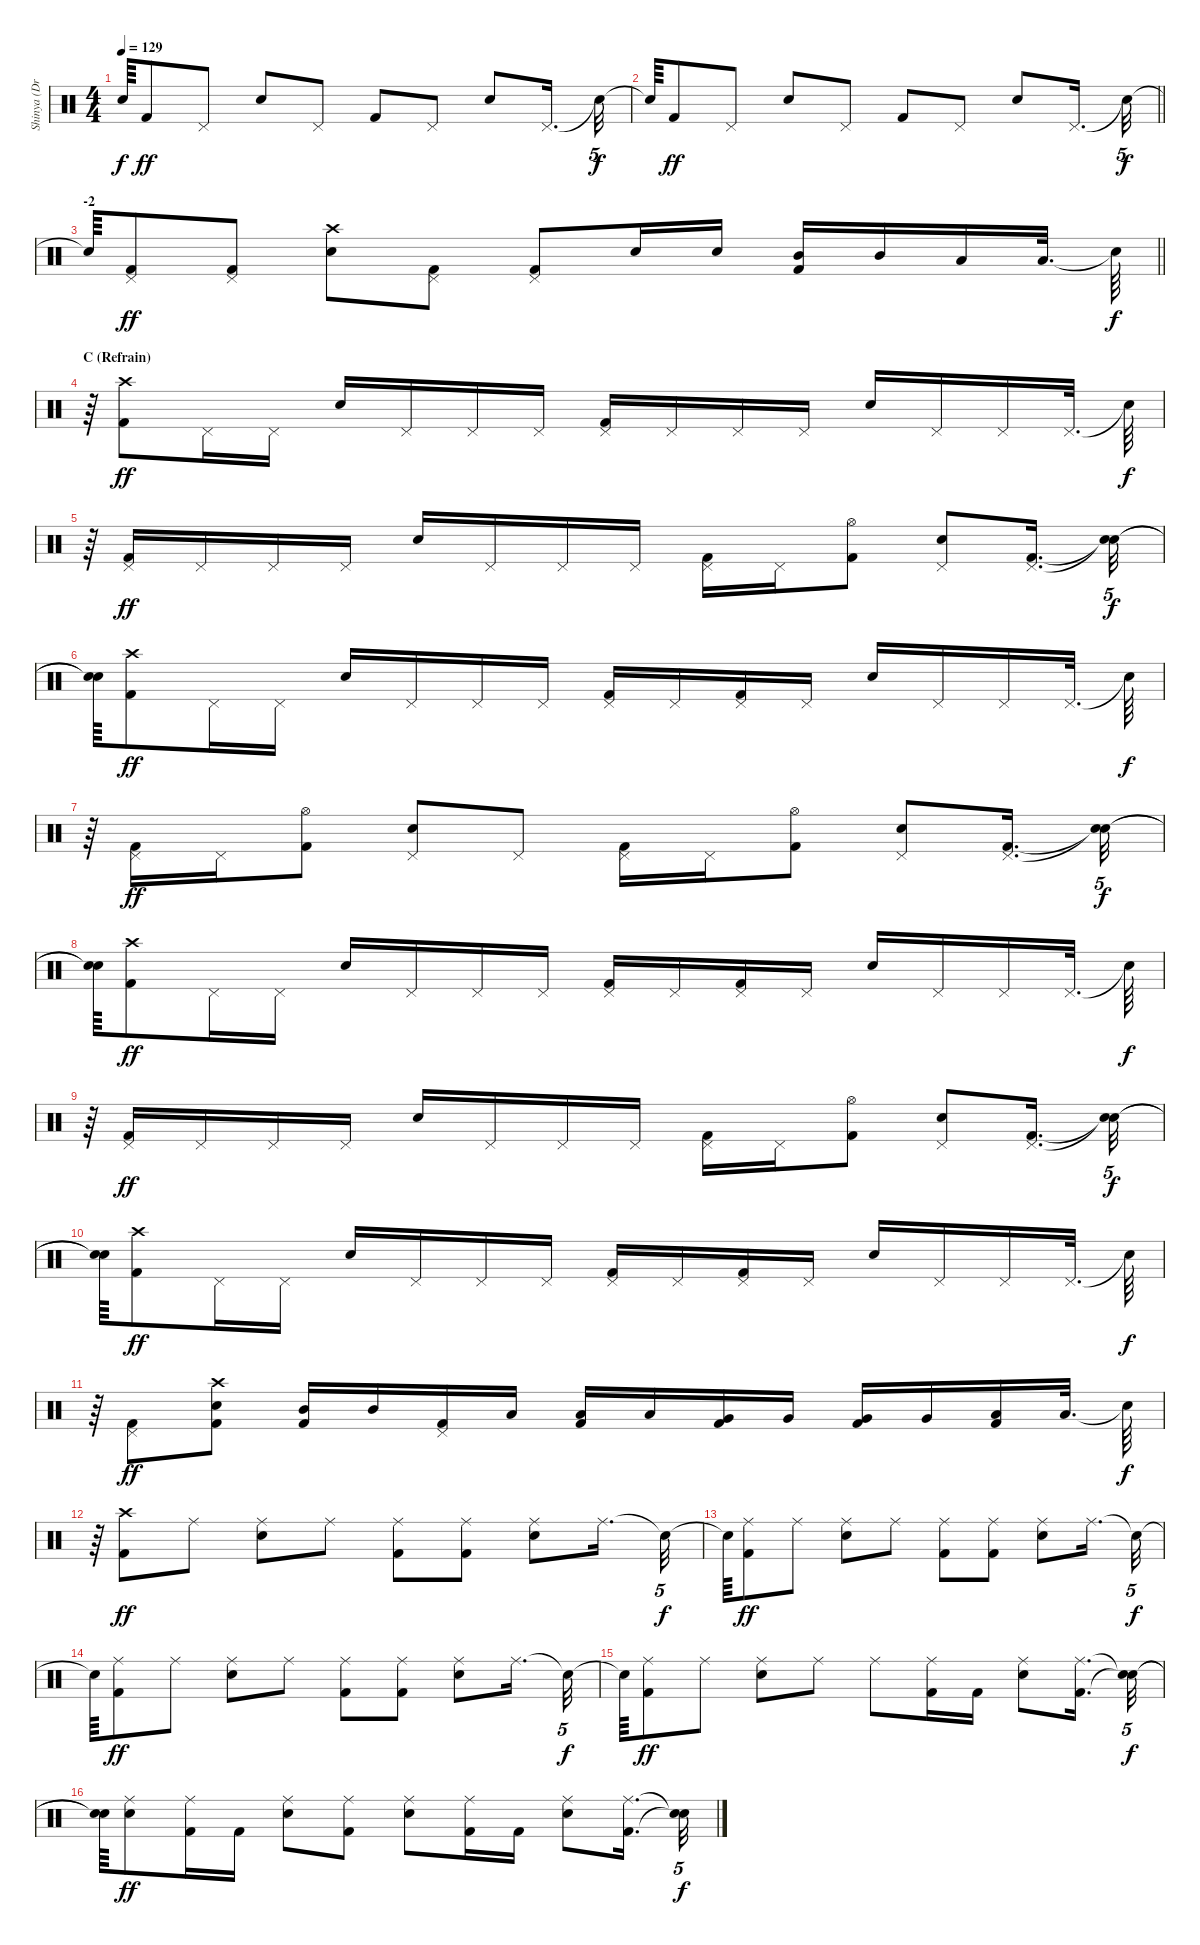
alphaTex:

\track ("Shinya (Drums)" "Shinya (Dr") {instrument percussion}
\staff {score}
\articulation defaults
\ts (4 4)
\tempo 129
\clef neutral
\ks c "Snare (hit)"{t}.64{dy f} "Kick (hit) 2".8{dy ff} "Pedal Hi-Hat (hit)".8 "Electric Snare (hit)".8 "Pedal Hi-Hat (hit)".8 "Kick (hit) 2".8 "Pedal Hi-Hat (hit)".8 "Electric Snare (hit)".8 "Pedal Hi-Hat (hit)".16{d} "Snare (hit)"{t}.32{tu (5 4) dy f}
|
\barLineRight lightlight "Snare (hit)"{t}.64 "Kick (hit) 2".8{dy ff} "Pedal Hi-Hat (hit)".8 "Electric Snare (hit)".8 "Pedal Hi-Hat (hit)".8 "Kick (hit) 2".8 "Pedal Hi-Hat (hit)".8 "Electric Snare (hit)".8 "Pedal Hi-Hat (hit)".16{d} "Snare (hit)"{t}.32{tu (5 4) dy f}
|
\section ("" "-2")
\barLineRight lightlight "Snare (hit)"{t}.64
("Pedal Hi-Hat (hit)" "Kick (hit) 2").8{dy ff} ("Pedal Hi-Hat (hit)" "Kick (hit) 2").8 ("Electric Snare (hit)" "Crash high (hit)").8 ("Pedal Hi-Hat (hit)" "Kick (hit) 2").8 ("Pedal Hi-Hat (hit)" "Kick (hit) 2").8 "Electric Snare (hit)".16 "Electric Snare (hit)".16 ("Mid Tom (hit)" "Kick (hit) 2").16 "Mid Tom (hit)".16 "Low Tom (hit)".16 "Low Tom (hit)".32{d} "Snare (hit)"{t}.64{dy f} |
\section ("" "C (Refrain)")
r.64 ("Kick (hit) 2" "Crash high (hit)").8{dy ff} "Pedal Hi-Hat (hit)".16 "Pedal Hi-Hat (hit)".16 "Electric Snare (hit)".16 "Pedal Hi-Hat (hit)".16 "Pedal Hi-Hat (hit)".16 "Pedal Hi-Hat (hit)".16 ("Kick (hit) 2" "Pedal Hi-Hat (hit)").16 "Pedal Hi-Hat (hit)".16 "Pedal Hi-Hat (hit)".16 "Pedal Hi-Hat (hit)".16 "Electric Snare (hit)".16 "Pedal Hi-Hat (hit)".16 "Pedal Hi-Hat (hit)".16 "Pedal Hi-Hat (hit)".32{d} "Snare (hit)"{t}.64{dy f} |
r.64 ("Kick (hit) 2" "Pedal Hi-Hat (hit)").16{dy ff} "Pedal Hi-Hat (hit)".16 "Pedal Hi-Hat (hit)".16 "Pedal Hi-Hat (hit)".16 "Electric Snare (hit)".16 "Pedal Hi-Hat (hit)".16 "Pedal Hi-Hat (hit)".16 "Pedal Hi-Hat (hit)".16 ("Kick (hit) 2" "Pedal Hi-Hat (hit)").16 "Pedal Hi-Hat (hit)".16 ("Kick (hit) 2" "Hi-Hat (open)").8 ("Electric Snare (hit)" "Pedal Hi-Hat (hit)").8 ("Kick (hit) 2" "Pedal Hi-Hat (hit)").16{d} ("Snare (hit)"{t} "Snare (hit)"{t}).32{tu (5 4) dy f} |
("Snare (hit)"{t} "Snare (hit)"{t}).64 ("Kick (hit) 2" "Crash high (hit)").8{dy ff} "Pedal Hi-Hat (hit)".16 "Pedal Hi-Hat (hit)".16 "Electric Snare (hit)".16 "Pedal Hi-Hat (hit)".16 "Pedal Hi-Hat (hit)".16 "Pedal Hi-Hat (hit)".16 ("Kick (hit) 2" "Pedal Hi-Hat (hit)").16 "Pedal Hi-Hat (hit)".16 ("Kick (hit) 2" "Pedal Hi-Hat (hit)").16 "Pedal Hi-Hat (hit)".16 "Electric Snare (hit)".16 "Pedal Hi-Hat (hit)".16 "Pedal Hi-Hat (hit)".16 "Pedal Hi-Hat (hit)".32{d} "Snare (hit)"{t}.64{dy f} |
r.64 ("Kick (hit) 2" "Pedal Hi-Hat (hit)").16{dy ff} "Pedal Hi-Hat (hit)".16 ("Kick (hit) 2" "Hi-Hat (open)").8 ("Pedal Hi-Hat (hit)" "Electric Snare (hit)").8 "Pedal Hi-Hat (hit)".8 ("Kick (hit) 2" "Pedal Hi-Hat (hit)").16 "Pedal Hi-Hat (hit)".16 ("Kick (hit) 2" "Hi-Hat (open)").8 ("Pedal Hi-Hat (hit)" "Electric Snare (hit)").8 ("Kick (hit) 2" "Pedal Hi-Hat (hit)").16{d} ("Snare (hit)"{t} "Snare (hit)"{t}).32{tu (5 4) dy f} |
("Snare (hit)"{t} "Snare (hit)"{t}).64 ("Crash high (hit)" "Kick (hit) 2").8{dy ff} "Pedal Hi-Hat (hit)".16 "Pedal Hi-Hat (hit)".16 "Electric Snare (hit)".16 "Pedal Hi-Hat (hit)".16 "Pedal Hi-Hat (hit)".16 "Pedal Hi-Hat (hit)".16 ("Pedal Hi-Hat (hit)" "Kick (hit) 2").16 "Pedal Hi-Hat (hit)".16 ("Pedal Hi-Hat (hit)" "Kick (hit) 2").16 "Pedal Hi-Hat (hit)".16 "Electric Snare (hit)".16 "Pedal Hi-Hat (hit)".16 "Pedal Hi-Hat (hit)".16 "Pedal Hi-Hat (hit)".32{d} "Snare (hit)"{t}.64{dy f} |
r.64 ("Kick (hit) 2" "Pedal Hi-Hat (hit)").16{dy ff} "Pedal Hi-Hat (hit)".16 "Pedal Hi-Hat (hit)".16 "Pedal Hi-Hat (hit)".16 "Electric Snare (hit)".16 "Pedal Hi-Hat (hit)".16 "Pedal Hi-Hat (hit)".16 "Pedal Hi-Hat (hit)".16 ("Pedal Hi-Hat (hit)" "Kick (hit) 2").16 "Pedal Hi-Hat (hit)".16 ("Kick (hit) 2" "Hi-Hat (open)").8 ("Electric Snare (hit)" "Pedal Hi-Hat (hit)").8 ("Pedal Hi-Hat (hit)" "Kick (hit) 2").16{d} ("Snare (hit)"{t} "Snare (hit)"{t}).32{tu (5 4) dy f} |
("Snare (hit)"{t} "Snare (hit)"{t}).64 ("Crash high (hit)" "Kick (hit) 2").8{dy ff} "Pedal Hi-Hat (hit)".16 "Pedal Hi-Hat (hit)".16 "Electric Snare (hit)".16 "Pedal Hi-Hat (hit)".16 "Pedal Hi-Hat (hit)".16 "Pedal Hi-Hat (hit)".16 ("Pedal Hi-Hat (hit)" "Kick (hit) 2").16 "Pedal Hi-Hat (hit)".16 ("Pedal Hi-Hat (hit)" "Kick (hit) 2").16 "Pedal Hi-Hat (hit)".16 "Electric Snare (hit)".16 "Pedal Hi-Hat (hit)".16 "Pedal Hi-Hat (hit)".16 "Pedal Hi-Hat (hit)".32{d} "Snare (hit)"{t}.64{dy f} |
r.64 ("Kick (hit) 2" "Pedal Hi-Hat (hit)").8{dy ff} ("Kick (hit) 2" "Crash high (hit)" "Electric Snare (hit)").8 ("Kick (hit) 2" "Mid Tom (hit)").16 "Mid Tom (hit)".16 ("Kick (hit) 2" "Pedal Hi-Hat (hit)").16 "Low Tom (hit)".16 ("Kick (hit) 2" "Low Tom (hit)").16 "Low Tom (hit)".16 ("Kick (hit) 2" "Very Low Tom (hit)").16 "Very Low Tom (hit)".16 ("Kick (hit) 2" "Very Low Tom (hit)").16 "Very Low Tom (hit)".16 ("Kick (hit) 2" "Low Floor Tom (hit)").16 "Low Floor Tom (hit)".32{d} "Snare (hit)"{t}.64{dy f} |
r.64 ("Kick (hit) 2" "Crash high (hit)").8{dy ff} "Ride (middle)".8 ("Electric Snare (hit)" "Ride (middle)").8 "Ride (middle)".8 ("Kick (hit) 2" "Ride (middle)").8 ("Kick (hit) 2" "Ride (middle)").8 ("Electric Snare (hit)" "Ride (middle)").8 "Ride (middle)".16{d} "Snare (hit)"{t}.32{tu (5 4) dy f} |
"Snare (hit)"{t}.64 ("Kick (hit) 2" "Ride (middle)").8{dy ff} "Ride (middle)".8 ("Electric Snare (hit)" "Ride (middle)").8 "Ride (middle)".8 ("Kick (hit) 2" "Ride (middle)").8 ("Kick (hit) 2" "Ride (middle)").8 ("Electric Snare (hit)" "Ride (middle)").8 "Ride (middle)".16{d} "Snare (hit)"{t}.32{tu (5 4) dy f} |
"Snare (hit)"{t}.64 ("Kick (hit) 2" "Ride (middle)").8{dy ff} "Ride (middle)".8 ("Electric Snare (hit)" "Ride (middle)").8 "Ride (middle)".8 ("Kick (hit) 2" "Ride (middle)").8 ("Kick (hit) 2" "Ride (middle)").8 ("Electric Snare (hit)" "Ride (middle)").8 "Ride (middle)".16{d} "Snare (hit)"{t}.32{tu (5 4) dy f} |
"Snare (hit)"{t}.64 ("Kick (hit) 2" "Ride (middle)").8{dy ff} "Ride (middle)".8 ("Electric Snare (hit)" "Ride (middle)").8 "Ride (middle)".8 "Ride (middle)".8 ("Ride (middle)" "Kick (hit) 2").16 "Kick (hit) 2".16 ("Electric Snare (hit)" "Ride (middle)").8 ("Ride (middle)" "Kick (hit) 2").16{d} ("Snare (hit)"{t} "Snare (hit)"{t}).32{tu (5 4) dy f} |
("Snare (hit)"{t} "Snare (hit)"{t}).64 ("Electric Snare (hit)" "Ride (middle)").8{dy ff} ("Ride (middle)" "Kick (hit) 2").16 "Kick (hit) 2".16 ("Electric Snare (hit)" "Ride (middle)").8 ("Ride (middle)" "Kick (hit) 2").8 ("Electric Snare (hit)" "Ride (middle)").8 ("Ride (middle)" "Kick (hit) 2").16 "Kick (hit) 2".16 ("Electric Snare (hit)" "Ride (middle)").8 ("Ride (middle)" "Kick (hit) 2").16{d} ("Snare (hit)"{t} "Snare (hit)"{t}).32{tu (5 4) dy f}
